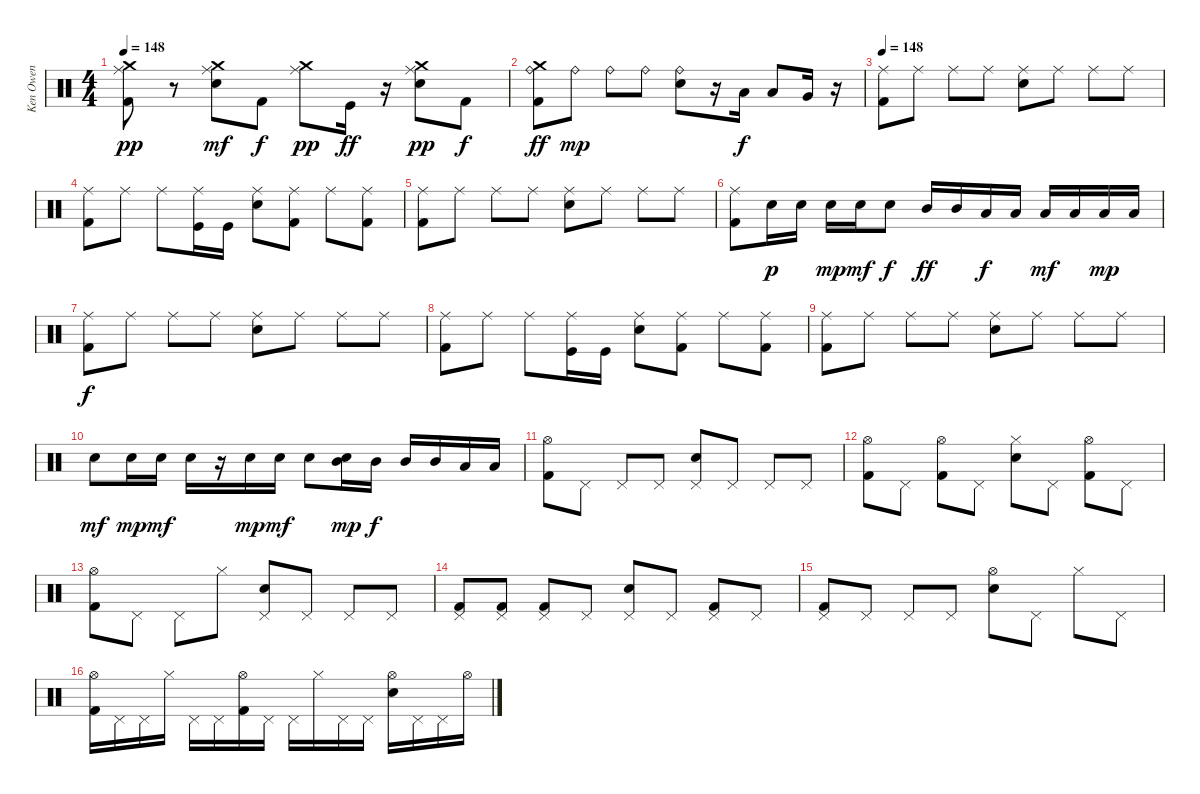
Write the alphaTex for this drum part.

\track ("Ken Owen" "Ken Owen") {instrument percussion}
\staff {score}
\articulation defaults
\ts (4 4)
\tempo 148
\clef neutral
\ks c
("Crash medium (hit)" "Ride (middle)" "Kick (hit) 2").8{dy pp} r.8 ("Crash medium (hit)" "Ride (middle)" "Snare (hit) 2").8{dy mf} "Kick (hit) 2".8{dy f} ("Crash medium (hit)" "Ride (middle)").8{dy pp} "Kick (hit)".16{dy ff} r.16 ("Crash medium (hit)" "Ride (middle)" "Snare (hit) 2").8{dy pp} "Kick (hit) 2".8{dy f} |
("Ride (bell)" "Kick (hit) 2" "Crash medium (hit)").8{dy ff} "Ride (bell)".8{dy mp} "Ride (bell)".8 "Ride (bell)".8 ("Ride (bell)" "Snare (hit) 2").8 r.16 "Low Tom (hit)".16{dy f} "Low Tom (hit)".8 "Very Low Tom (hit)".16 r.16 |
\tempo 148
("Ride (middle)" "Kick (hit) 2").8 "Ride (middle)".8 "Ride (middle)".8 "Ride (middle)".8 ("Ride (middle)" "Snare (hit) 2").8 "Ride (middle)".8 "Ride (middle)".8 "Ride (middle)".8 |
("Ride (middle)" "Kick (hit) 2").8 "Ride (middle)".8 "Ride (middle)".8 ("Ride (middle)" "Kick (hit)").16 "Kick (hit)".16 ("Ride (middle)" "Snare (hit) 2").8 ("Ride (middle)" "Kick (hit) 2").8 "Ride (middle)".8 ("Ride (middle)" "Kick (hit) 2").8 |
("Ride (middle)" "Kick (hit) 2").8 "Ride (middle)".8 "Ride (middle)".8 "Ride (middle)".8 ("Ride (middle)" "Snare (hit) 2").8 "Ride (middle)".8 "Ride (middle)".8 "Ride (middle)".8 |
("Ride (middle)" "Kick (hit) 2").8 "Snare (hit) 2".16{dy p balance 5} "Snare (hit) 2".16 "Snare (hit) 2".16{dy mp balance 6} "Snare (hit) 2".16{dy mf} "Snare (hit) 2".8{dy f balance 7} "Mid Tom (hit)".16{dy ff balance 9} "Mid Tom (hit)".16{balance 10} "Low Tom (hit)".16{dy f} "Low Tom (hit)".16 "Low Tom (hit)".16{dy mf balance 11} "Low Tom (hit)".16{balance 12} "Low Tom (hit)".16{dy mp balance 13} "Low Tom (hit)".16{balance 8} |
("Ride (middle)" "Kick (hit) 2").8{dy f} "Ride (middle)".8 "Ride (middle)".8 "Ride (middle)".8 ("Ride (middle)" "Snare (hit) 2").8 "Ride (middle)".8 "Ride (middle)".8 "Ride (middle)".8 |
("Ride (middle)" "Kick (hit) 2").8 "Ride (middle)".8 "Ride (middle)".8 ("Ride (middle)" "Kick (hit)").16 "Kick (hit)".16 ("Ride (middle)" "Snare (hit) 2").8 ("Ride (middle)" "Kick (hit) 2").8 "Ride (middle)".8 ("Ride (middle)" "Kick (hit) 2").8 |
("Ride (middle)" "Kick (hit) 2").8 "Ride (middle)".8 "Ride (middle)".8 "Ride (middle)".8 ("Ride (middle)" "Snare (hit) 2").8 "Ride (middle)".8 "Ride (middle)".8 "Ride (middle)".8 |
"Snare (hit) 2".8{dy mf} "Snare (hit) 2".16{dy mp} "Snare (hit) 2".16{dy mf} "Snare (hit) 2".16 r.16 "Snare (hit) 2".16{dy mp} "Snare (hit) 2".16{dy mf} "Snare (hit) 2".8 ("Snare (hit) 2" "Mid Tom (hit)").16{dy mp} "Mid Tom (hit)".16{dy f} "Mid Tom (hit)".16 "Mid Tom (hit)".16 "Low Tom (hit)".16 "Low Tom (hit)".16 |
("Hi-Hat (open)" "Kick (hit) 2").8{balance 8} "Pedal Hi-Hat (hit)".8 "Pedal Hi-Hat (hit)".8 "Pedal Hi-Hat (hit)".8 ("Pedal Hi-Hat (hit)" "Snare (hit) 2").8 "Pedal Hi-Hat (hit)".8 "Pedal Hi-Hat (hit)".8 "Pedal Hi-Hat (hit)".8 |
("Hi-Hat (open)" "Kick (hit) 2").8 "Pedal Hi-Hat (hit)".8 ("Hi-Hat (open)" "Kick (hit) 2").8 "Pedal Hi-Hat (hit)".8 ("Hi-Hat (closed)" "Snare (hit) 2").8 "Pedal Hi-Hat (hit)".8 ("Hi-Hat (open)" "Kick (hit) 2").8 "Pedal Hi-Hat (hit)".8 |
("Hi-Hat (open)" "Kick (hit) 2").8 "Pedal Hi-Hat (hit)".8 "Pedal Hi-Hat (hit)".8 "Hi-Hat (closed)".8 ("Pedal Hi-Hat (hit)" "Snare (hit) 2").8 "Pedal Hi-Hat (hit)".8 "Pedal Hi-Hat (hit)".8 "Pedal Hi-Hat (hit)".8 |
("Pedal Hi-Hat (hit)" "Kick (hit) 2").8 ("Pedal Hi-Hat (hit)" "Kick (hit) 2").8 ("Pedal Hi-Hat (hit)" "Kick (hit) 2").8 "Pedal Hi-Hat (hit)".8 ("Pedal Hi-Hat (hit)" "Snare (hit) 2").8 "Pedal Hi-Hat (hit)".8 ("Pedal Hi-Hat (hit)" "Kick (hit) 2").8 "Pedal Hi-Hat (hit)".8 |
("Pedal Hi-Hat (hit)" "Kick (hit) 2").8 "Pedal Hi-Hat (hit)".8 "Pedal Hi-Hat (hit)".8 "Pedal Hi-Hat (hit)".8 ("Hi-Hat (open)" "Snare (hit) 2").8 "Pedal Hi-Hat (hit)".8 "Hi-Hat (closed)".8 "Pedal Hi-Hat (hit)".8 |
("Hi-Hat (open)" "Kick (hit) 2").16 "Pedal Hi-Hat (hit)".16 "Pedal Hi-Hat (hit)".16 "Hi-Hat (closed)".16 "Pedal Hi-Hat (hit)".16 "Pedal Hi-Hat (hit)".16 ("Hi-Hat (open)" "Kick (hit) 2").16 "Pedal Hi-Hat (hit)".16 "Pedal Hi-Hat (hit)".16 "Hi-Hat (closed)".16 "Pedal Hi-Hat (hit)".16 "Pedal Hi-Hat (hit)".16 ("Hi-Hat (open)" "Snare (hit) 2").16 "Pedal Hi-Hat (hit)".16 "Pedal Hi-Hat (hit)".16 "Hi-Hat (open)".16
